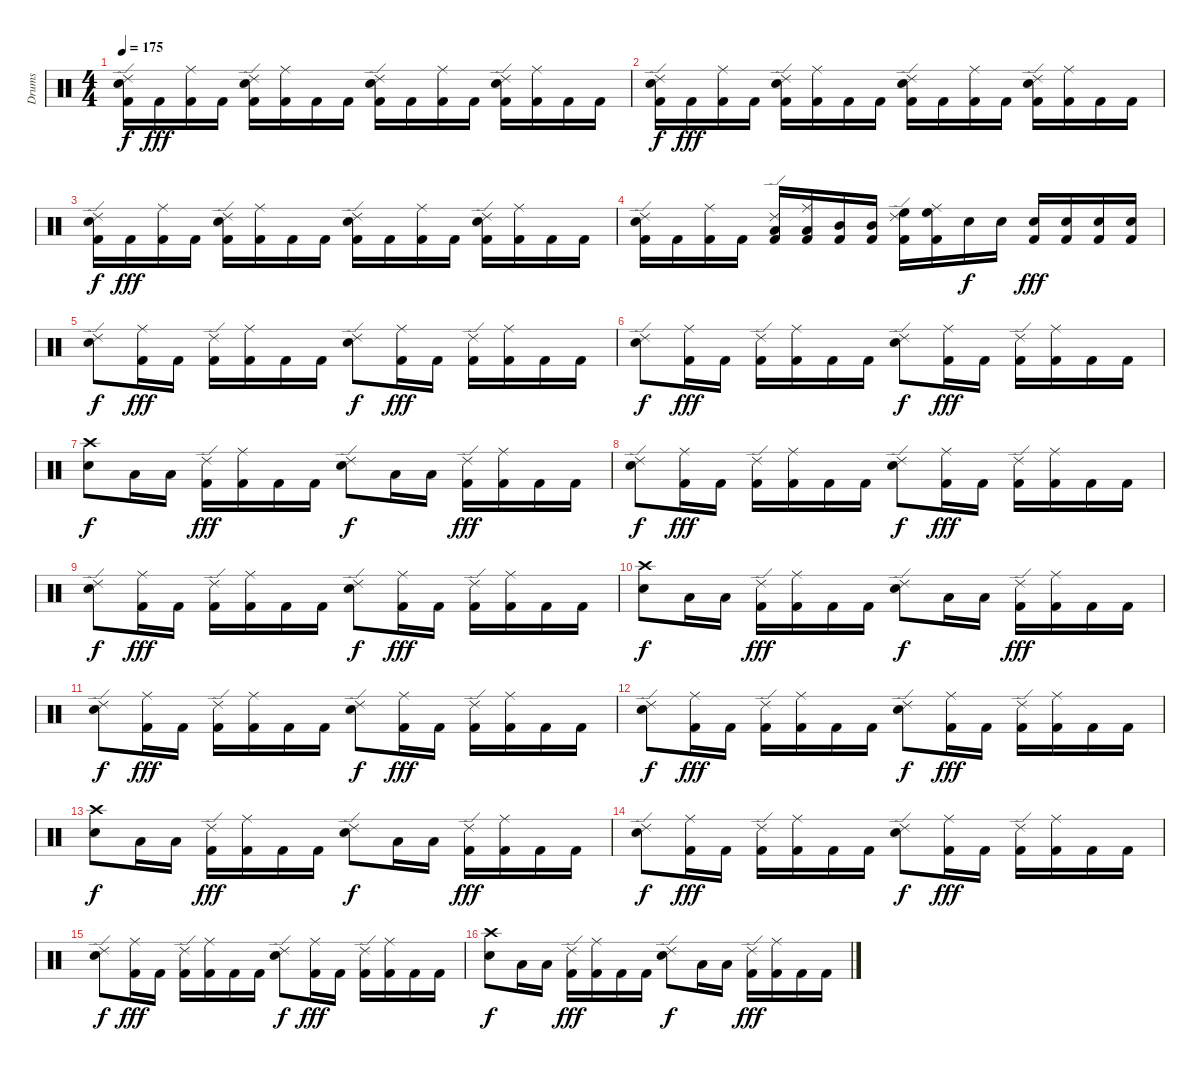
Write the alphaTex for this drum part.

\track ("Drums" "Drums") {instrument percussion}
\staff {score}
\articulation defaults
\ts (4 4)
\tempo 175
\clef neutral
\ks c
("Ride (edge) 2" "Electric Snare (hit)" "Kick (hit) 2").16{dy f} "Kick (hit) 2".16{dy fff} ("Ride (middle)" "Kick (hit) 2").16 "Kick (hit) 2".16 ("Ride (edge) 2" "Electric Snare (hit)" "Kick (hit) 2").16 ("Ride (middle)" "Kick (hit) 2").16 "Kick (hit) 2".16 "Kick (hit) 2".16 ("Ride (edge) 2" "Electric Snare (hit)" "Kick (hit) 2").16 "Kick (hit) 2".16 ("Ride (middle)" "Kick (hit) 2").16 "Kick (hit) 2".16 ("Ride (edge) 2" "Electric Snare (hit)" "Kick (hit) 2").16 ("Ride (middle)" "Kick (hit) 2").16 "Kick (hit) 2".16 "Kick (hit) 2".16 |
("Ride (edge) 2" "Electric Snare (hit)" "Kick (hit) 2").16{dy f} "Kick (hit) 2".16{dy fff} ("Ride (middle)" "Kick (hit) 2").16 "Kick (hit) 2".16 ("Ride (edge) 2" "Electric Snare (hit)" "Kick (hit) 2").16 ("Ride (middle)" "Kick (hit) 2").16 "Kick (hit) 2".16 "Kick (hit) 2".16 ("Ride (edge) 2" "Electric Snare (hit)" "Kick (hit) 2").16 "Kick (hit) 2".16 ("Ride (middle)" "Kick (hit) 2").16 "Kick (hit) 2".16 ("Ride (edge) 2" "Electric Snare (hit)" "Kick (hit) 2").16 ("Ride (middle)" "Kick (hit) 2").16 "Kick (hit) 2".16 "Kick (hit) 2".16 |
("Ride (edge) 2" "Electric Snare (hit)" "Kick (hit) 2").16{dy f} "Kick (hit) 2".16{dy fff} ("Ride (middle)" "Kick (hit) 2").16 "Kick (hit) 2".16 ("Ride (edge) 2" "Electric Snare (hit)" "Kick (hit) 2").16 ("Ride (middle)" "Kick (hit) 2").16 "Kick (hit) 2".16 "Kick (hit) 2".16 ("Ride (edge) 2" "Electric Snare (hit)" "Kick (hit) 2").16 "Kick (hit) 2".16 ("Ride (middle)" "Kick (hit) 2").16 "Kick (hit) 2".16 ("Ride (edge) 2" "Electric Snare (hit)" "Kick (hit) 2").16 ("Ride (middle)" "Kick (hit) 2").16 "Kick (hit) 2".16 "Kick (hit) 2".16 |
("Ride (edge) 2" "Electric Snare (hit)" "Kick (hit) 2").16 "Kick (hit) 2".16 ("Ride (middle)" "Kick (hit) 2").16 "Kick (hit) 2".16 ("Ride (edge) 2" "Low Tom (hit)" "Kick (hit) 2").16 ("Ride (middle)" "Low Tom (hit)" "Kick (hit) 2").16 ("Mid Tom (hit)" "Kick (hit) 2").16 ("Mid Tom (hit)" "Kick (hit) 2").16 ("Ride (edge) 2" "High Floor Tom (hit)" "Kick (hit) 2").16 ("Ride (middle)" "High Floor Tom (hit)" "Kick (hit) 2").16 "Electric Snare (hit)".16{dy f} "Electric Snare (hit)".16 ("Electric Snare (hit)" "Kick (hit) 2").16{dy fff} ("Electric Snare (hit)" "Kick (hit) 2").16 ("Electric Snare (hit)" "Kick (hit) 2").16 ("Electric Snare (hit)" "Kick (hit) 2").16 |
("Ride (edge) 2" "Electric Snare (hit)").8{dy f} ("Ride (middle)" "Kick (hit) 2").16{dy fff} "Kick (hit) 2".16 ("Ride (edge) 2" "Kick (hit) 2").16 ("Ride (middle)" "Kick (hit) 2").16 "Kick (hit) 2".16 "Kick (hit) 2".16 ("Ride (edge) 2" "Electric Snare (hit)").8{dy f} ("Ride (middle)" "Kick (hit) 2").16{dy fff} "Kick (hit) 2".16 ("Ride (edge) 2" "Kick (hit) 2").16 ("Ride (middle)" "Kick (hit) 2").16 "Kick (hit) 2".16 "Kick (hit) 2".16 |
("Ride (edge) 2" "Electric Snare (hit)").8{dy f} ("Ride (middle)" "Kick (hit) 2").16{dy fff} "Kick (hit) 2".16 ("Ride (edge) 2" "Kick (hit) 2").16 ("Ride (middle)" "Kick (hit) 2").16 "Kick (hit) 2".16 "Kick (hit) 2".16 ("Ride (edge) 2" "Electric Snare (hit)").8{dy f} ("Ride (middle)" "Kick (hit) 2").16{dy fff} "Kick (hit) 2".16 ("Ride (edge) 2" "Kick (hit) 2").16 ("Ride (middle)" "Kick (hit) 2").16 "Kick (hit) 2".16 "Kick (hit) 2".16 |
("Crash high (hit)" "Electric Snare (hit)").8{dy f} "Low Tom (hit)".16 "Low Tom (hit)".16 ("Ride (edge) 2" "Kick (hit) 2").16{dy fff} ("Ride (middle)" "Kick (hit) 2").16 "Kick (hit) 2".16 "Kick (hit) 2".16 ("Ride (edge) 2" "Electric Snare (hit)").8{dy f} "Low Tom (hit)".16 "Low Tom (hit)".16 ("Ride (edge) 2" "Kick (hit) 2").16{dy fff} ("Ride (middle)" "Kick (hit) 2").16 "Kick (hit) 2".16 "Kick (hit) 2".16 |
("Ride (edge) 2" "Electric Snare (hit)").8{dy f} ("Ride (middle)" "Kick (hit) 2").16{dy fff} "Kick (hit) 2".16 ("Ride (edge) 2" "Kick (hit) 2").16 ("Ride (middle)" "Kick (hit) 2").16 "Kick (hit) 2".16 "Kick (hit) 2".16 ("Ride (edge) 2" "Electric Snare (hit)").8{dy f} ("Ride (middle)" "Kick (hit) 2").16{dy fff} "Kick (hit) 2".16 ("Ride (edge) 2" "Kick (hit) 2").16 ("Ride (middle)" "Kick (hit) 2").16 "Kick (hit) 2".16 "Kick (hit) 2".16 |
("Ride (edge) 2" "Electric Snare (hit)").8{dy f} ("Ride (middle)" "Kick (hit) 2").16{dy fff} "Kick (hit) 2".16 ("Ride (edge) 2" "Kick (hit) 2").16 ("Ride (middle)" "Kick (hit) 2").16 "Kick (hit) 2".16 "Kick (hit) 2".16 ("Ride (edge) 2" "Electric Snare (hit)").8{dy f} ("Ride (middle)" "Kick (hit) 2").16{dy fff} "Kick (hit) 2".16 ("Ride (edge) 2" "Kick (hit) 2").16 ("Ride (middle)" "Kick (hit) 2").16 "Kick (hit) 2".16 "Kick (hit) 2".16 |
("Crash high (hit)" "Electric Snare (hit)").8{dy f} "Low Tom (hit)".16 "Low Tom (hit)".16 ("Ride (edge) 2" "Kick (hit) 2").16{dy fff} ("Ride (middle)" "Kick (hit) 2").16 "Kick (hit) 2".16 "Kick (hit) 2".16 ("Ride (edge) 2" "Electric Snare (hit)").8{dy f} "Low Tom (hit)".16 "Low Tom (hit)".16 ("Ride (edge) 2" "Kick (hit) 2").16{dy fff} ("Ride (middle)" "Kick (hit) 2").16 "Kick (hit) 2".16 "Kick (hit) 2".16 |
("Ride (edge) 2" "Electric Snare (hit)").8{dy f} ("Ride (middle)" "Kick (hit) 2").16{dy fff} "Kick (hit) 2".16 ("Ride (edge) 2" "Kick (hit) 2").16 ("Ride (middle)" "Kick (hit) 2").16 "Kick (hit) 2".16 "Kick (hit) 2".16 ("Ride (edge) 2" "Electric Snare (hit)").8{dy f} ("Ride (middle)" "Kick (hit) 2").16{dy fff} "Kick (hit) 2".16 ("Ride (edge) 2" "Kick (hit) 2").16 ("Ride (middle)" "Kick (hit) 2").16 "Kick (hit) 2".16 "Kick (hit) 2".16 |
("Ride (edge) 2" "Electric Snare (hit)").8{dy f} ("Ride (middle)" "Kick (hit) 2").16{dy fff} "Kick (hit) 2".16 ("Ride (edge) 2" "Kick (hit) 2").16 ("Ride (middle)" "Kick (hit) 2").16 "Kick (hit) 2".16 "Kick (hit) 2".16 ("Ride (edge) 2" "Electric Snare (hit)").8{dy f} ("Ride (middle)" "Kick (hit) 2").16{dy fff} "Kick (hit) 2".16 ("Ride (edge) 2" "Kick (hit) 2").16 ("Ride (middle)" "Kick (hit) 2").16 "Kick (hit) 2".16 "Kick (hit) 2".16 |
("Crash high (hit)" "Electric Snare (hit)").8{dy f} "Low Tom (hit)".16 "Low Tom (hit)".16 ("Ride (edge) 2" "Kick (hit) 2").16{dy fff} ("Ride (middle)" "Kick (hit) 2").16 "Kick (hit) 2".16 "Kick (hit) 2".16 ("Ride (edge) 2" "Electric Snare (hit)").8{dy f} "Low Tom (hit)".16 "Low Tom (hit)".16 ("Ride (edge) 2" "Kick (hit) 2").16{dy fff} ("Ride (middle)" "Kick (hit) 2").16 "Kick (hit) 2".16 "Kick (hit) 2".16 |
("Ride (edge) 2" "Electric Snare (hit)").8{dy f} ("Ride (middle)" "Kick (hit) 2").16{dy fff} "Kick (hit) 2".16 ("Ride (edge) 2" "Kick (hit) 2").16 ("Ride (middle)" "Kick (hit) 2").16 "Kick (hit) 2".16 "Kick (hit) 2".16 ("Ride (edge) 2" "Electric Snare (hit)").8{dy f} ("Ride (middle)" "Kick (hit) 2").16{dy fff} "Kick (hit) 2".16 ("Ride (edge) 2" "Kick (hit) 2").16 ("Ride (middle)" "Kick (hit) 2").16 "Kick (hit) 2".16 "Kick (hit) 2".16 |
("Ride (edge) 2" "Electric Snare (hit)").8{dy f} ("Ride (middle)" "Kick (hit) 2").16{dy fff} "Kick (hit) 2".16 ("Ride (edge) 2" "Kick (hit) 2").16 ("Ride (middle)" "Kick (hit) 2").16 "Kick (hit) 2".16 "Kick (hit) 2".16 ("Ride (edge) 2" "Electric Snare (hit)").8{dy f} ("Ride (middle)" "Kick (hit) 2").16{dy fff} "Kick (hit) 2".16 ("Ride (edge) 2" "Kick (hit) 2").16 ("Ride (middle)" "Kick (hit) 2").16 "Kick (hit) 2".16 "Kick (hit) 2".16 |
("Crash high (hit)" "Electric Snare (hit)").8{dy f} "Low Tom (hit)".16 "Low Tom (hit)".16 ("Ride (edge) 2" "Kick (hit) 2").16{dy fff} ("Ride (middle)" "Kick (hit) 2").16 "Kick (hit) 2".16 "Kick (hit) 2".16 ("Ride (edge) 2" "Electric Snare (hit)").8{dy f} "Low Tom (hit)".16 "Low Tom (hit)".16 ("Ride (edge) 2" "Kick (hit) 2").16{dy fff} ("Ride (middle)" "Kick (hit) 2").16 "Kick (hit) 2".16 "Kick (hit) 2".16
